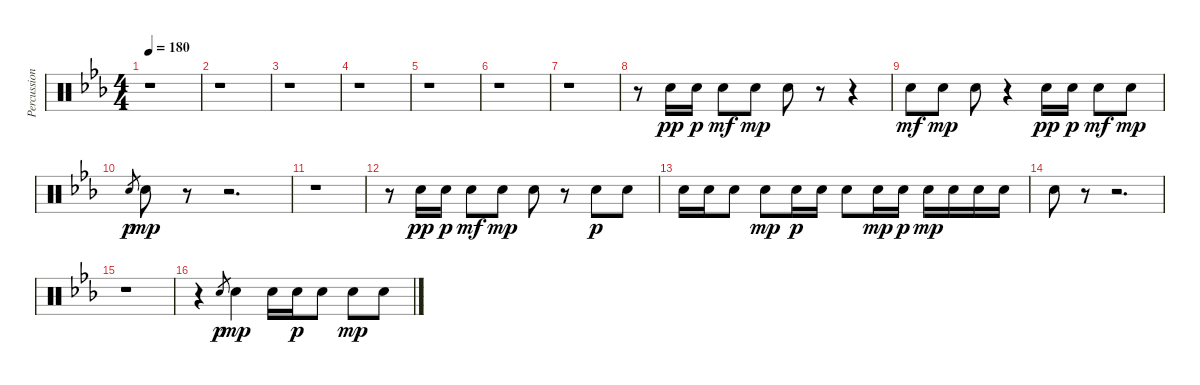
\track ("Percussion" "Percussion") {instrument percussion}
\staff {score}
\articulation defaults
\ts (4 4)
\tempo 180
\clef neutral
\ks cminor
r.1{dy f} |
r.1 |
r.1 |
r.1 |
r.1 |
r.1 |
r.1 |
r.8{volume 8 balance 14} "Snare (hit) 2".16{dy pp} "Snare (hit) 2".16{dy p} "Snare (hit) 2".8{dy mf} "Snare (hit) 2".8{dy mp} "Snare (hit) 2".8 r.8 r.4 |
"Snare (hit) 2".8{dy mf} "Snare (hit) 2".8{dy mp} "Snare (hit) 2".8 r.4 "Snare (hit) 2".16{dy pp} "Snare (hit) 2".16{dy p} "Snare (hit) 2".8{dy mf} "Snare (hit) 2".8{dy mp} |
"Snare (hit) 2".8{gr dy p} "Snare (hit) 2".8{dy mp} r.8 r.2{d} |
r.1 |
r.8 "Snare (hit) 2".16{dy pp} "Snare (hit) 2".16{dy p} "Snare (hit) 2".8{dy mf} "Snare (hit) 2".8{dy mp} "Snare (hit) 2".8 r.8 "Snare (hit) 2".8{dy p} "Snare (hit) 2".8 |
"Snare (hit) 2".16 "Snare (hit) 2".16 "Snare (hit) 2".8 "Snare (hit) 2".8{dy mp} "Snare (hit) 2".16{dy p} "Snare (hit) 2".16 "Snare (hit) 2".8 "Snare (hit) 2".16{dy mp} "Snare (hit) 2".16{dy p} "Snare (hit) 2".16{dy mp} "Snare (hit) 2".16 "Snare (hit) 2".16 "Snare (hit) 2".16 |
"Snare (hit) 2".8 r.8 r.2{d} |
r.1 |
r.4 "Snare (hit) 2".8{gr dy p} "Snare (hit) 2".4{dy mp} "Snare (hit) 2".16 "Snare (hit) 2".16{dy p} "Snare (hit) 2".8 "Snare (hit) 2".8{dy mp} "Snare (hit) 2".8
